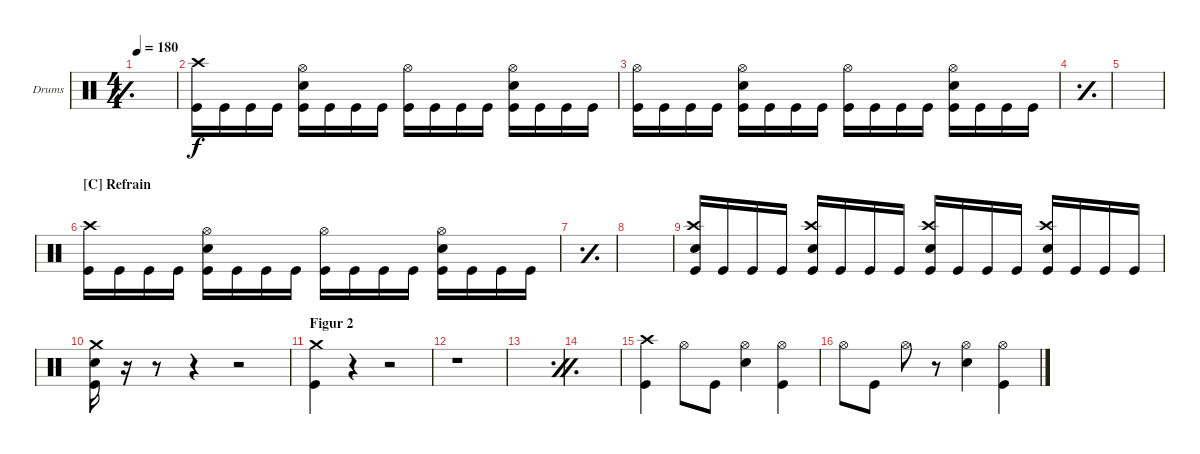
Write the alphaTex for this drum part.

\defaultSystemsLayout 4
\bracketExtendMode groupsimilarinstruments
\firstSystemTrackNameOrientation horizontal
\otherSystemsTrackNameOrientation horizontal
\track ("Drumkit" "Drums") {instrument percussion}
\staff {score}
\articulation defaults
\ts (4 4)
\tempo 180
\clef neutral
\simile simple
\ks c
|
("Kick (hit)" "Crash high (hit)").16 "Kick (hit)".16 "Kick (hit)".16 "Kick (hit)".16 ("Kick (hit)" "Snare (hit) 2" "Hi-Hat (open)").16 "Kick (hit)".16 "Kick (hit)".16 "Kick (hit)".16 ("Kick (hit)" "Hi-Hat (open)").16 "Kick (hit)".16 "Kick (hit)".16 "Kick (hit)".16 ("Kick (hit)" "Snare (hit) 2" "Hi-Hat (open)").16 "Kick (hit)".16 "Kick (hit)".16 "Kick (hit)".16 |
("Kick (hit)" "Hi-Hat (open)").16 "Kick (hit)".16 "Kick (hit)".16 "Kick (hit)".16 ("Kick (hit)" "Snare (hit) 2" "Hi-Hat (open)").16 "Kick (hit)".16 "Kick (hit)".16 "Kick (hit)".16 ("Kick (hit)" "Hi-Hat (open)").16 "Kick (hit)".16 "Kick (hit)".16 "Kick (hit)".16 ("Kick (hit)" "Snare (hit) 2" "Hi-Hat (open)").16 "Kick (hit)".16 "Kick (hit)".16 "Kick (hit)".16 |
\simile simple
|
|
\section ("C" "Refrain")
\simile none
("Kick (hit)" "Crash high (hit)").16 "Kick (hit)".16 "Kick (hit)".16 "Kick (hit)".16 ("Kick (hit)" "Snare (hit) 2" "Hi-Hat (open)").16 "Kick (hit)".16 "Kick (hit)".16 "Kick (hit)".16 ("Kick (hit)" "Hi-Hat (open)").16 "Kick (hit)".16 "Kick (hit)".16 "Kick (hit)".16 ("Kick (hit)" "Snare (hit) 2" "Hi-Hat (open)").16 "Kick (hit)".16 "Kick (hit)".16 "Kick (hit)".16 |
\simile simple
|
|
\simile none
("Kick (hit)" "Snare (hit) 2" "Crash high (hit)").16 "Kick (hit)".16 "Kick (hit)".16 "Kick (hit)".16 ("Kick (hit)" "Snare (hit) 2" "Crash high (hit)").16 "Kick (hit)".16 "Kick (hit)".16 "Kick (hit)".16 ("Kick (hit)" "Snare (hit) 2" "Crash high (hit)").16 "Kick (hit)".16 "Kick (hit)".16 "Kick (hit)".16 ("Kick (hit)" "Snare (hit) 2" "Crash high (hit)").16 "Kick (hit)".16 "Kick (hit)".16 "Kick (hit)".16 |
("Crash medium (hit)" "Snare (hit) 2" "Kick (hit)").16 r.16 r.8 r.4 r.2 |
\section ("" "Figur 2")
("Kick (hit)" "Crash medium (hit)").4 r.4 r.2 |
r.1 |
\simile firstofdouble
|
\simile secondofdouble
|
\simile none
("Kick (hit)" "Crash high (hit)").4 "Hi-Hat (open)".8 "Kick (hit)".8 ("Snare (hit) 2" "Hi-Hat (open)").4 ("Kick (hit)" "Hi-Hat (open)").4 |
"Hi-Hat (open)".8 "Kick (hit)".8 "Hi-Hat (open)".8 r.8 ("Snare (hit) 2" "Hi-Hat (open)").4 ("Kick (hit)" "Hi-Hat (open)").4
